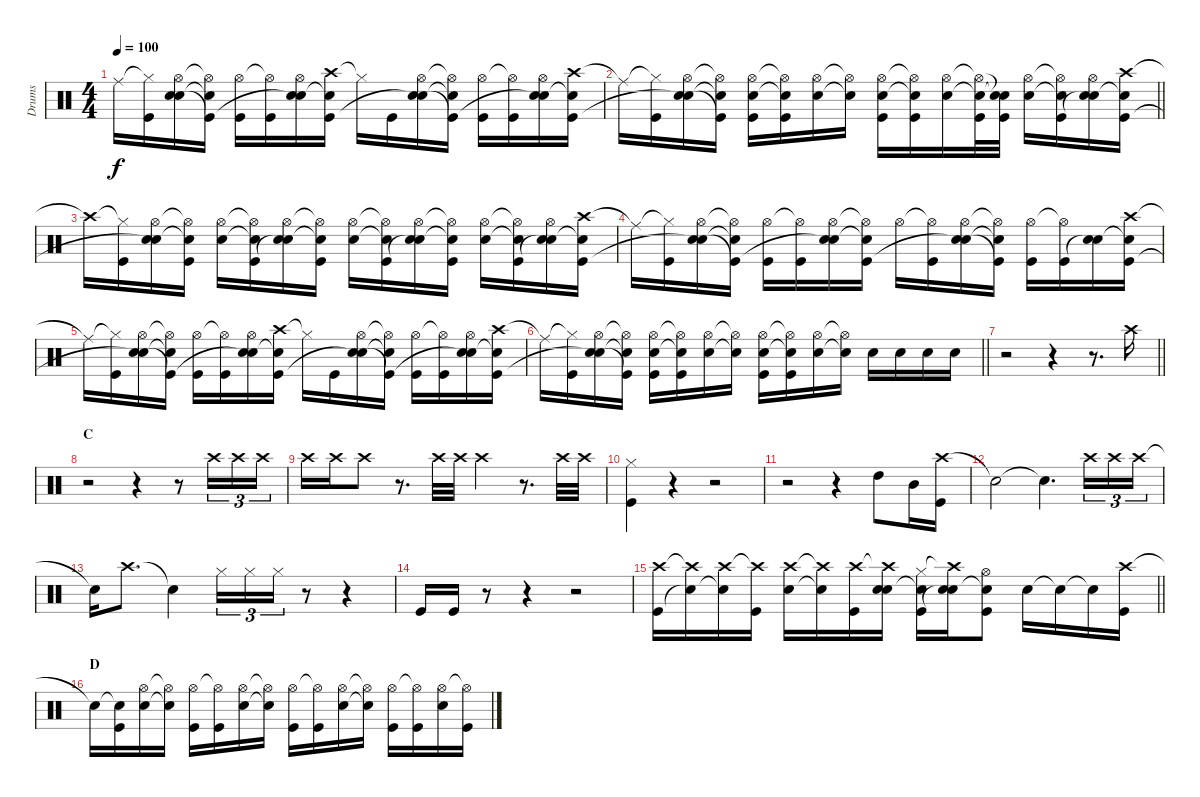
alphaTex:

\track ("Drums" "Drums") {instrument percussion}
\staff {score}
\articulation defaults
\ts (4 4)
\tempo 100
\clef neutral
\ks c "Ride (middle)"{t}.16{dy f}
("Hi-Hat (closed)"{t} "Kick (hit)").16 ("Hi-Hat (open)" "Snare (hit) 2" "Snare (hit)"{t}).16 ("Hi-Hat (open)"{t} "Snare (hit) 2"{t} "Kick (hit)"{t}).16 ("Hi-Hat (open)" "Kick (hit)").16 ("Hi-Hat (open)"{t} "Kick (hit)").16 ("Hi-Hat (open)" "Snare (hit) 2" "Snare (hit)"{t}).16 ("Crash high (hit)" "Snare (hit) 2"{t} "Kick (hit)").16 "Hi-Hat (closed)"{t}.16 "Kick (hit)".16 ("Hi-Hat (open)" "Snare (hit) 2" "Snare (hit)"{t}).16 ("Hi-Hat (open)"{t} "Snare (hit) 2"{t} "Kick (hit)"{t}).16 ("Hi-Hat (open)" "Kick (hit)").16 ("Hi-Hat (open)"{t} "Kick (hit)").16 ("Hi-Hat (open)" "Snare (hit) 2" "Snare (hit)"{t}).16 ("Crash high (hit)" "Snare (hit) 2"{t} "Kick (hit)").16 |
\barLineRight lightlight "Ride (middle)"{t}.16
("Hi-Hat (closed)"{t} "Kick (hit)").16 ("Hi-Hat (open)" "Snare (hit) 2" "Snare (hit)"{t}).16 ("Hi-Hat (open)"{t} "Snare (hit) 2"{t} "Kick (hit)"{t}).16 ("Hi-Hat (open)" "Snare (hit) 2" "Kick (hit)").16 ("Hi-Hat (open)"{t} "Snare (hit) 2"{t} "Kick (hit)").16 ("Hi-Hat (open)" "Snare (hit) 2").16 ("Hi-Hat (open)"{t} "Snare (hit) 2"{t}).16 ("Hi-Hat (open)" "Snare (hit) 2" "Kick (hit)").16 ("Hi-Hat (open)"{t} "Snare (hit) 2"{t} "Kick (hit)").16 ("Hi-Hat (open)" "Snare (hit) 2").16 ("Hi-Hat (open)"{t} "Snare (hit) 2"{t} "Kick (hit)").32 ("Snare (hit)"{t} "Snare (hit)"{t} "Kick (hit)").32 ("Hi-Hat (open)" "Snare (hit) 2").16 ("Hi-Hat (open)"{t} "Snare (hit) 2"{t} "Kick (hit)").16 ("Hi-Hat (open)" "Snare (hit) 2" "Snare (hit)"{t}).16 ("Crash high (hit)" "Snare (hit) 2"{t} "Kick (hit)").16 |
"Crash high (hit)"{t}.16 ("Hi-Hat (closed)"{t} "Kick (hit)").16 ("Hi-Hat (open)" "Snare (hit) 2" "Snare (hit)"{t}).16 ("Hi-Hat (open)"{t} "Snare (hit) 2"{t} "Kick (hit)").16 ("Hi-Hat (open)" "Snare (hit) 2").16 ("Hi-Hat (open)"{t} "Snare (hit) 2"{t} "Kick (hit)").16 ("Hi-Hat (open)" "Snare (hit) 2" "Snare (hit)"{t}).16 ("Hi-Hat (open)"{t} "Snare (hit) 2"{t} "Kick (hit)").16 ("Hi-Hat (open)" "Snare (hit) 2").16 ("Hi-Hat (open)"{t} "Snare (hit) 2"{t} "Kick (hit)").16 ("Hi-Hat (open)" "Snare (hit) 2" "Snare (hit)"{t}).16 ("Hi-Hat (open)"{t} "Snare (hit) 2"{t} "Kick (hit)").16 ("Hi-Hat (open)" "Snare (hit) 2").16 ("Hi-Hat (open)"{t} "Snare (hit) 2"{t} "Kick (hit)").16 ("Hi-Hat (open)" "Snare (hit) 2" "Snare (hit)"{t}).16 ("Crash high (hit)" "Snare (hit) 2"{t} "Kick (hit)").16 |
"Ride (middle)"{t}.16 ("Hi-Hat (closed)"{t} "Kick (hit)").16 ("Hi-Hat (open)" "Snare (hit) 2" "Snare (hit)"{t}).16 ("Hi-Hat (open)"{t} "Snare (hit) 2"{t} "Kick (hit)"{t}).16 ("Hi-Hat (open)" "Kick (hit)").16 ("Hi-Hat (open)"{t} "Kick (hit)").16 ("Hi-Hat (open)" "Snare (hit) 2" "Snare (hit)"{t}).16 ("Hi-Hat (open)"{t} "Snare (hit) 2"{t} "Kick (hit)").16 "Hi-Hat (open)".16 ("Hi-Hat (open)"{t} "Kick (hit)").16 ("Hi-Hat (open)" "Snare (hit) 2" "Snare (hit)"{t}).16 ("Hi-Hat (open)"{t} "Snare (hit) 2"{t} "Kick (hit)"{t}).16 ("Hi-Hat (open)" "Kick (hit)").16 ("Hi-Hat (open)"{t} "Kick (hit)").16 ("Snare (hit) 2" "Snare (hit)"{t}).16 ("Crash high (hit)" "Snare (hit) 2"{t} "Kick (hit)").16 |
"Ride (middle)"{t}.16 ("Hi-Hat (closed)"{t} "Kick (hit)").16 ("Hi-Hat (open)" "Snare (hit) 2" "Snare (hit)"{t}).16 ("Hi-Hat (open)"{t} "Snare (hit) 2"{t} "Kick (hit)"{t}).16 ("Hi-Hat (open)" "Kick (hit)").16 ("Hi-Hat (open)"{t} "Kick (hit)").16 ("Hi-Hat (open)" "Snare (hit) 2" "Snare (hit)"{t}).16 ("Crash high (hit)" "Snare (hit) 2"{t} "Kick (hit)").16 "Hi-Hat (closed)"{t}.16 "Kick (hit)".16 ("Hi-Hat (open)" "Snare (hit) 2" "Snare (hit)"{t}).16 ("Hi-Hat (open)"{t} "Snare (hit) 2"{t} "Kick (hit)"{t}).16 ("Hi-Hat (open)" "Kick (hit)").16 ("Hi-Hat (open)"{t} "Kick (hit)").16 ("Hi-Hat (open)" "Snare (hit) 2" "Snare (hit)"{t}).16 ("Crash high (hit)" "Snare (hit) 2"{t} "Kick (hit)").16 |
\barLineRight lightlight "Ride (middle)"{t}.16
("Hi-Hat (closed)"{t} "Kick (hit)").16 ("Hi-Hat (open)" "Snare (hit) 2" "Snare (hit)"{t}).16 ("Hi-Hat (open)"{t} "Snare (hit) 2"{t} "Kick (hit)"{t}).16 ("Hi-Hat (open)" "Snare (hit) 2" "Kick (hit)").16 ("Hi-Hat (open)"{t} "Snare (hit) 2"{t} "Kick (hit)").16 ("Hi-Hat (open)" "Snare (hit) 2").16 ("Hi-Hat (open)"{t} "Snare (hit) 2"{t}).16 ("Hi-Hat (open)" "Snare (hit) 2" "Kick (hit)").16 ("Hi-Hat (open)"{t} "Snare (hit) 2"{t} "Kick (hit)").16 ("Hi-Hat (open)" "Snare (hit) 2").16 ("Hi-Hat (open)"{t} "Snare (hit) 2"{t}).16 "Snare (hit) 2".16 "Snare (hit) 2".16 "Snare (hit) 2".16 "Snare (hit) 2".16 |
\barLineRight lightlight
r.2 r.4 r.8{d} "Crash high (hit)".16 |
\section ("" "C")
r.2 r.4 r.8 "Crash high (hit)".16{tu (3 2)} "Crash high (hit)".16{tu (3 2)} "Crash high (hit)".16{tu (3 2)} |
"Crash high (hit)".16 "Crash high (hit)".16 "Crash high (hit)".8 r.8{d} "Crash high (hit)".32 "Crash high (hit)".32 "Crash high (hit)".4 r.8{d} "Crash high (hit)".32 "Crash high (hit)".32 |
("Hi-Hat (closed)" "Kick (hit)").4 r.4 r.2 |
r.2 r.4 "High Tom (hit)".8 "Mid Tom (hit)".16 ("Crash high (hit)" "Kick (hit)").16 |
"Snare (hit)"{t}.2 "Snare (hit)"{t}.4{d} "Crash high (hit)".16{tu (3 2)} "Crash high (hit)".16{tu (3 2)} "Crash high (hit)".16{tu (3 2)} |
"Snare (hit)"{t}.16 "Crash high (hit)".8{d} "Snare (hit)"{t}.4 "Hi-Hat (closed)".16{tu (3 2)} "Hi-Hat (closed)".16{tu (3 2)} "Hi-Hat (closed)".16{tu (3 2)} r.8 r.4 |
"Kick (hit)".16 "Kick (hit)".16 r.8 r.4 r.2 |
\barLineRight lightlight
("Crash high (hit)" "Kick (hit)").16 ("Crash high (hit)"{t} "Snare (hit)"{t}).16 ("Crash high (hit)" "Snare (hit)"{t}).16 ("Crash high (hit)"{t} "Kick (hit)").16 ("Crash high (hit)" "Snare (hit) 2").16 ("Crash high (hit)"{t} "Snare (hit)"{t}).16 ("Crash high (hit)" "Kick (hit)").16 ("Crash high (hit)"{t} "Snare (hit) 2" "Snare (hit)").16 ("Hi-Hat (closed)" "Snare (hit)"{t} "Kick (hit)").16 ("Crash high (hit)"{t} "Snare (hit) 2" "Snare (hit)"{t}).16 ("Hi-Hat (open)" "Snare (hit)"{t} "Kick (hit)").8 "Snare (hit) 2".16 "Snare (hit)"{t}.16 "Snare (hit)"{t}.16 ("Crash high (hit)" "Kick (hit)").16 |
\section ("" "D")
"Snare (hit)"{t}.16 ("Snare (hit)"{t} "Kick (hit)").16 ("Hi-Hat (open)" "Snare (hit) 2").16 ("Hi-Hat (open)"{t} "Snare (hit)"{t}).16 ("Hi-Hat (open)" "Kick (hit)").16 ("Hi-Hat (open)"{t} "Kick (hit)").16 ("Hi-Hat (open)" "Snare (hit) 2").16 ("Hi-Hat (open)"{t} "Snare (hit)"{t}).16 ("Hi-Hat (open)" "Kick (hit)").16 ("Hi-Hat (open)"{t} "Kick (hit)").16 ("Hi-Hat (open)" "Snare (hit) 2").16 ("Hi-Hat (open)"{t} "Snare (hit)"{t}).16 ("Hi-Hat (open)" "Kick (hit)").16 ("Hi-Hat (open)"{t} "Kick (hit)").16 ("Hi-Hat (open)" "Snare (hit) 2").16 ("Hi-Hat (open)"{t} "Kick (hit)").16
